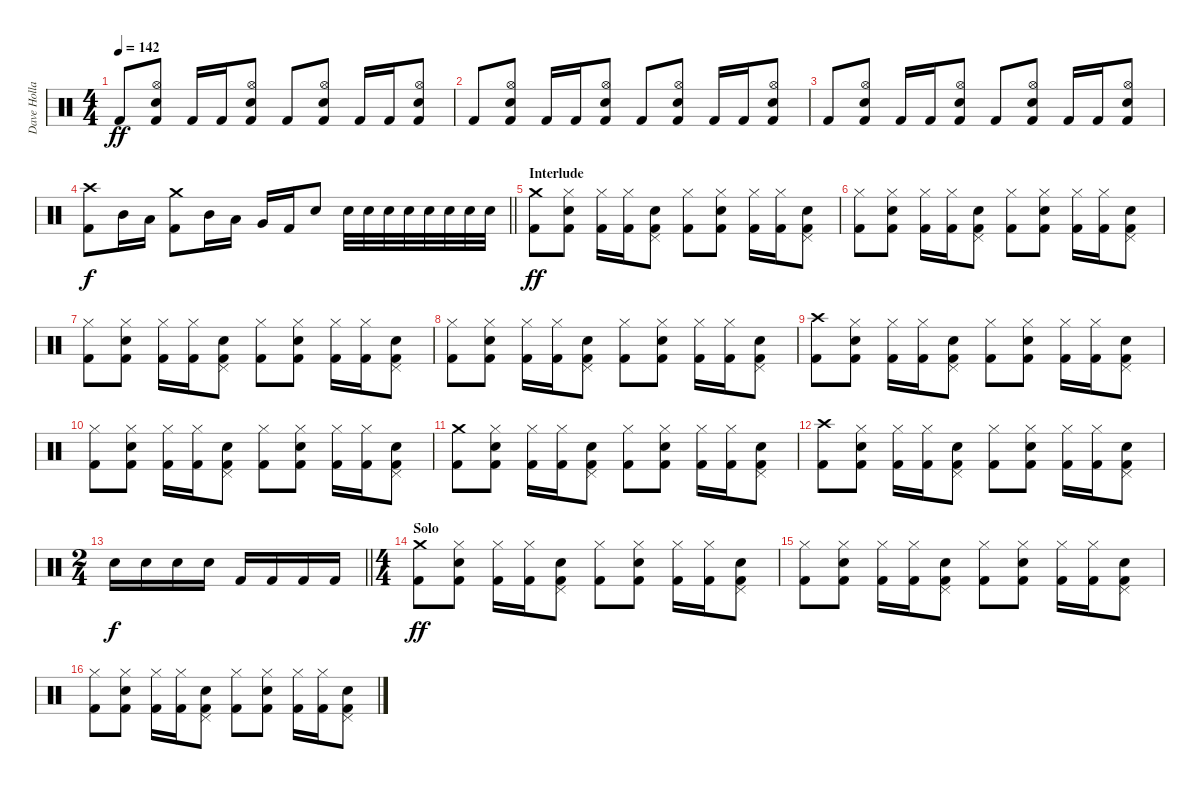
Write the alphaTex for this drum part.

\track ("Dave Holland" "Dave Holla") {instrument percussion}
\staff {score}
\articulation defaults
\ts (4 4)
\tempo 142
\clef neutral
\ks c "Kick (hit) 2".8{dy ff}
("Hi-Hat (open)" "Snare (hit) 2" "Kick (hit) 2").8 "Kick (hit) 2".16 "Kick (hit) 2".16 ("Hi-Hat (open)" "Snare (hit) 2" "Kick (hit) 2").8 "Kick (hit) 2".8 ("Hi-Hat (open)" "Snare (hit) 2" "Kick (hit) 2").8 "Kick (hit) 2".16 "Kick (hit) 2".16 ("Hi-Hat (open)" "Snare (hit) 2" "Kick (hit) 2").8 |
"Kick (hit) 2".8 ("Hi-Hat (open)" "Snare (hit) 2" "Kick (hit) 2").8 "Kick (hit) 2".16 "Kick (hit) 2".16 ("Hi-Hat (open)" "Snare (hit) 2" "Kick (hit) 2").8 "Kick (hit) 2".8 ("Hi-Hat (open)" "Snare (hit) 2" "Kick (hit) 2").8 "Kick (hit) 2".16 "Kick (hit) 2".16 ("Hi-Hat (open)" "Snare (hit) 2" "Kick (hit) 2").8 |
"Kick (hit) 2".8 ("Hi-Hat (open)" "Snare (hit) 2" "Kick (hit) 2").8 "Kick (hit) 2".16 "Kick (hit) 2".16 ("Hi-Hat (open)" "Snare (hit) 2" "Kick (hit) 2").8 "Kick (hit) 2".8 ("Hi-Hat (open)" "Snare (hit) 2" "Kick (hit) 2").8 "Kick (hit) 2".16 "Kick (hit) 2".16 ("Hi-Hat (open)" "Snare (hit) 2" "Kick (hit) 2").8 |
\barLineRight lightlight
("Crash high (hit)" "Kick (hit) 2").8{dy f} "Mid Tom (hit)".16 "Low Tom (hit)".16 ("Crash medium (hit)" "Kick (hit) 2").8 "Mid Tom (hit)".16 "Low Tom (hit)".16 "Very Low Tom (hit)".16 "Kick (hit) 2".16 "Snare (hit) 2".8 "Snare (hit) 2".32 "Snare (hit) 2".32 "Snare (hit) 2".32 "Snare (hit) 2".32 "Snare (hit) 2".32 "Snare (hit) 2".32 "Snare (hit) 2".32 "Snare (hit) 2".32 |
\section ("" "Interlude")
("Crash medium (hit)" "Kick (hit) 2").8{dy ff} ("Hi-Hat (closed)" "Snare (hit) 2" "Kick (hit) 2").8 ("Hi-Hat (closed)" "Kick (hit) 2").16 ("Hi-Hat (closed)" "Kick (hit) 2").16 ("Pedal Hi-Hat (hit)" "Snare (hit) 2" "Kick (hit) 2").8 ("Hi-Hat (closed)" "Kick (hit) 2").8 ("Hi-Hat (closed)" "Snare (hit) 2" "Kick (hit) 2").8 ("Hi-Hat (closed)" "Kick (hit) 2").16 ("Hi-Hat (closed)" "Kick (hit) 2").16 ("Pedal Hi-Hat (hit)" "Snare (hit) 2" "Kick (hit) 2").8 |
("Hi-Hat (closed)" "Kick (hit) 2").8 ("Hi-Hat (closed)" "Snare (hit) 2" "Kick (hit) 2").8 ("Hi-Hat (closed)" "Kick (hit) 2").16 ("Hi-Hat (closed)" "Kick (hit) 2").16 ("Pedal Hi-Hat (hit)" "Snare (hit) 2" "Kick (hit) 2").8 ("Hi-Hat (closed)" "Kick (hit) 2").8 ("Hi-Hat (closed)" "Snare (hit) 2" "Kick (hit) 2").8 ("Hi-Hat (closed)" "Kick (hit) 2").16 ("Hi-Hat (closed)" "Kick (hit) 2").16 ("Pedal Hi-Hat (hit)" "Snare (hit) 2" "Kick (hit) 2").8 |
("Hi-Hat (closed)" "Kick (hit) 2").8 ("Hi-Hat (closed)" "Snare (hit) 2" "Kick (hit) 2").8 ("Hi-Hat (closed)" "Kick (hit) 2").16 ("Hi-Hat (closed)" "Kick (hit) 2").16 ("Pedal Hi-Hat (hit)" "Snare (hit) 2" "Kick (hit) 2").8 ("Hi-Hat (closed)" "Kick (hit) 2").8 ("Hi-Hat (closed)" "Snare (hit) 2" "Kick (hit) 2").8 ("Hi-Hat (closed)" "Kick (hit) 2").16 ("Hi-Hat (closed)" "Kick (hit) 2").16 ("Pedal Hi-Hat (hit)" "Snare (hit) 2" "Kick (hit) 2").8 |
("Hi-Hat (closed)" "Kick (hit) 2").8 ("Hi-Hat (closed)" "Snare (hit) 2" "Kick (hit) 2").8 ("Hi-Hat (closed)" "Kick (hit) 2").16 ("Hi-Hat (closed)" "Kick (hit) 2").16 ("Pedal Hi-Hat (hit)" "Snare (hit) 2" "Kick (hit) 2").8 ("Hi-Hat (closed)" "Kick (hit) 2").8 ("Hi-Hat (closed)" "Snare (hit) 2" "Kick (hit) 2").8 ("Hi-Hat (closed)" "Kick (hit) 2").16 ("Hi-Hat (closed)" "Kick (hit) 2").16 ("Pedal Hi-Hat (hit)" "Snare (hit) 2" "Kick (hit) 2").8 |
("Crash high (hit)" "Kick (hit) 2").8 ("Hi-Hat (closed)" "Snare (hit) 2" "Kick (hit) 2").8 ("Hi-Hat (closed)" "Kick (hit) 2").16 ("Hi-Hat (closed)" "Kick (hit) 2").16 ("Pedal Hi-Hat (hit)" "Snare (hit) 2" "Kick (hit) 2").8 ("Hi-Hat (closed)" "Kick (hit) 2").8 ("Hi-Hat (closed)" "Snare (hit) 2" "Kick (hit) 2").8 ("Hi-Hat (closed)" "Kick (hit) 2").16 ("Hi-Hat (closed)" "Kick (hit) 2").16 ("Pedal Hi-Hat (hit)" "Snare (hit) 2" "Kick (hit) 2").8 |
("Hi-Hat (closed)" "Kick (hit) 2").8 ("Hi-Hat (closed)" "Snare (hit) 2" "Kick (hit) 2").8 ("Hi-Hat (closed)" "Kick (hit) 2").16 ("Hi-Hat (closed)" "Kick (hit) 2").16 ("Pedal Hi-Hat (hit)" "Snare (hit) 2" "Kick (hit) 2").8 ("Hi-Hat (closed)" "Kick (hit) 2").8 ("Hi-Hat (closed)" "Snare (hit) 2" "Kick (hit) 2").8 ("Hi-Hat (closed)" "Kick (hit) 2").16 ("Hi-Hat (closed)" "Kick (hit) 2").16 ("Pedal Hi-Hat (hit)" "Snare (hit) 2" "Kick (hit) 2").8 |
("Crash medium (hit)" "Kick (hit) 2").8 ("Hi-Hat (closed)" "Snare (hit) 2" "Kick (hit) 2").8 ("Hi-Hat (closed)" "Kick (hit) 2").16 ("Hi-Hat (closed)" "Kick (hit) 2").16 ("Pedal Hi-Hat (hit)" "Snare (hit) 2" "Kick (hit) 2").8 ("Hi-Hat (closed)" "Kick (hit) 2").8 ("Hi-Hat (closed)" "Snare (hit) 2" "Kick (hit) 2").8 ("Hi-Hat (closed)" "Kick (hit) 2").16 ("Hi-Hat (closed)" "Kick (hit) 2").16 ("Pedal Hi-Hat (hit)" "Snare (hit) 2" "Kick (hit) 2").8 |
("Crash high (hit)" "Kick (hit) 2").8 ("Hi-Hat (closed)" "Snare (hit) 2" "Kick (hit) 2").8 ("Hi-Hat (closed)" "Kick (hit) 2").16 ("Hi-Hat (closed)" "Kick (hit) 2").16 ("Pedal Hi-Hat (hit)" "Snare (hit) 2" "Kick (hit) 2").8 ("Hi-Hat (closed)" "Kick (hit) 2").8 ("Hi-Hat (closed)" "Snare (hit) 2" "Kick (hit) 2").8 ("Hi-Hat (closed)" "Kick (hit) 2").16 ("Hi-Hat (closed)" "Kick (hit) 2").16 ("Pedal Hi-Hat (hit)" "Snare (hit) 2" "Kick (hit) 2").8 |
\ts (2 4)
\barLineRight lightlight "Snare (hit) 2".16{dy f} "Snare (hit) 2".16 "Snare (hit) 2".16 "Snare (hit) 2".16 "Kick (hit) 2".16 "Kick (hit) 2".16 "Kick (hit) 2".16 "Kick (hit) 2".16
|
\ts (4 4)
\section ("" "Solo")
("Crash medium (hit)" "Kick (hit) 2").8{dy ff} ("Hi-Hat (closed)" "Snare (hit) 2" "Kick (hit) 2").8 ("Hi-Hat (closed)" "Kick (hit) 2").16 ("Hi-Hat (closed)" "Kick (hit) 2").16 ("Pedal Hi-Hat (hit)" "Snare (hit) 2" "Kick (hit) 2").8 ("Hi-Hat (closed)" "Kick (hit) 2").8 ("Hi-Hat (closed)" "Snare (hit) 2" "Kick (hit) 2").8 ("Hi-Hat (closed)" "Kick (hit) 2").16 ("Hi-Hat (closed)" "Kick (hit) 2").16 ("Pedal Hi-Hat (hit)" "Snare (hit) 2" "Kick (hit) 2").8 |
("Hi-Hat (closed)" "Kick (hit) 2").8 ("Hi-Hat (closed)" "Snare (hit) 2" "Kick (hit) 2").8 ("Hi-Hat (closed)" "Kick (hit) 2").16 ("Hi-Hat (closed)" "Kick (hit) 2").16 ("Pedal Hi-Hat (hit)" "Snare (hit) 2" "Kick (hit) 2").8 ("Hi-Hat (closed)" "Kick (hit) 2").8 ("Hi-Hat (closed)" "Snare (hit) 2" "Kick (hit) 2").8 ("Hi-Hat (closed)" "Kick (hit) 2").16 ("Hi-Hat (closed)" "Kick (hit) 2").16 ("Pedal Hi-Hat (hit)" "Snare (hit) 2" "Kick (hit) 2").8 |
("Hi-Hat (closed)" "Kick (hit) 2").8 ("Hi-Hat (closed)" "Snare (hit) 2" "Kick (hit) 2").8 ("Hi-Hat (closed)" "Kick (hit) 2").16 ("Hi-Hat (closed)" "Kick (hit) 2").16 ("Pedal Hi-Hat (hit)" "Snare (hit) 2" "Kick (hit) 2").8 ("Hi-Hat (closed)" "Kick (hit) 2").8 ("Hi-Hat (closed)" "Snare (hit) 2" "Kick (hit) 2").8 ("Hi-Hat (closed)" "Kick (hit) 2").16 ("Hi-Hat (closed)" "Kick (hit) 2").16 ("Pedal Hi-Hat (hit)" "Snare (hit) 2" "Kick (hit) 2").8
